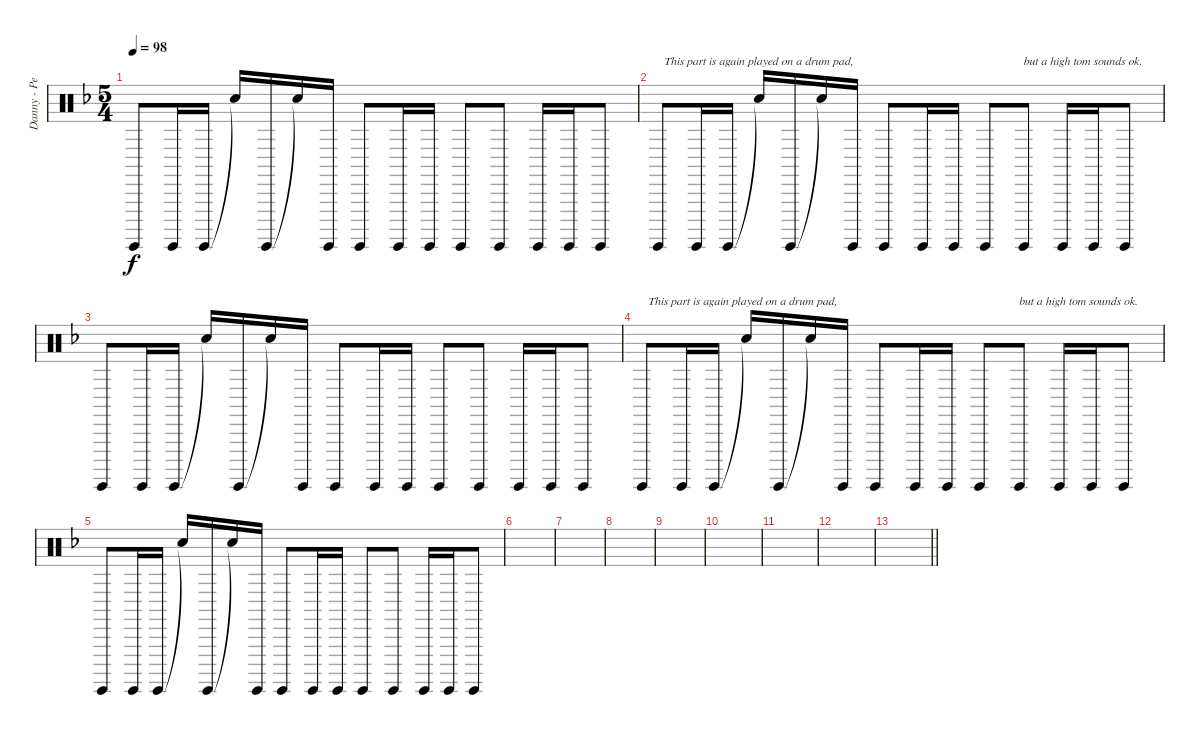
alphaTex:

\track ("Danny - Percusion" "Danny - Pe") {instrument percussion}
\staff {score}
\articulation defaults
\ts (5 4)
\tempo 98
\clef neutral
\ks dminor "Surdo (hit)".8{dy f} "Surdo (hit)".16 "Surdo (hit)".16 "Snare (hit)"{t}.16 "Surdo (hit)".16 "Snare (hit)"{t}.16 "Surdo (hit)".16 "Surdo (hit)".8 "Surdo (hit)".16 "Surdo (hit)".16 "Surdo (hit)".8 "Surdo (hit)".8 "Surdo (hit)".16 "Surdo (hit)".16 "Surdo (hit)".8
|
"Surdo (hit)".8{txt "  This part is again played on a drum pad,"} "Surdo (hit)".16 "Surdo (hit)".16 "Snare (hit)"{t}.16 "Surdo (hit)".16 "Snare (hit)"{t}.16 "Surdo (hit)".16 "Surdo (hit)".8 "Surdo (hit)".16 "Surdo (hit)".16 "Surdo (hit)".8 "Surdo (hit)".8{txt "but a high tom sounds ok."} "Surdo (hit)".16 "Surdo (hit)".16 "Surdo (hit)".8 |
"Surdo (hit)".8 "Surdo (hit)".16 "Surdo (hit)".16 "Snare (hit)"{t}.16 "Surdo (hit)".16 "Snare (hit)"{t}.16 "Surdo (hit)".16 "Surdo (hit)".8 "Surdo (hit)".16 "Surdo (hit)".16 "Surdo (hit)".8 "Surdo (hit)".8 "Surdo (hit)".16 "Surdo (hit)".16 "Surdo (hit)".8 |
"Surdo (hit)".8{txt "  This part is again played on a drum pad,"} "Surdo (hit)".16 "Surdo (hit)".16 "Snare (hit)"{t}.16 "Surdo (hit)".16 "Snare (hit)"{t}.16 "Surdo (hit)".16 "Surdo (hit)".8 "Surdo (hit)".16 "Surdo (hit)".16 "Surdo (hit)".8 "Surdo (hit)".8{txt "but a high tom sounds ok."} "Surdo (hit)".16 "Surdo (hit)".16 "Surdo (hit)".8 |
"Surdo (hit)".8 "Surdo (hit)".16 "Surdo (hit)".16 "Snare (hit)"{t}.16 "Surdo (hit)".16 "Snare (hit)"{t}.16 "Surdo (hit)".16 "Surdo (hit)".8 "Surdo (hit)".16 "Surdo (hit)".16 "Surdo (hit)".8 "Surdo (hit)".8 "Surdo (hit)".16 "Surdo (hit)".16 "Surdo (hit)".8 |
|
|
|
|
|
|
|
\barLineRight lightlight
